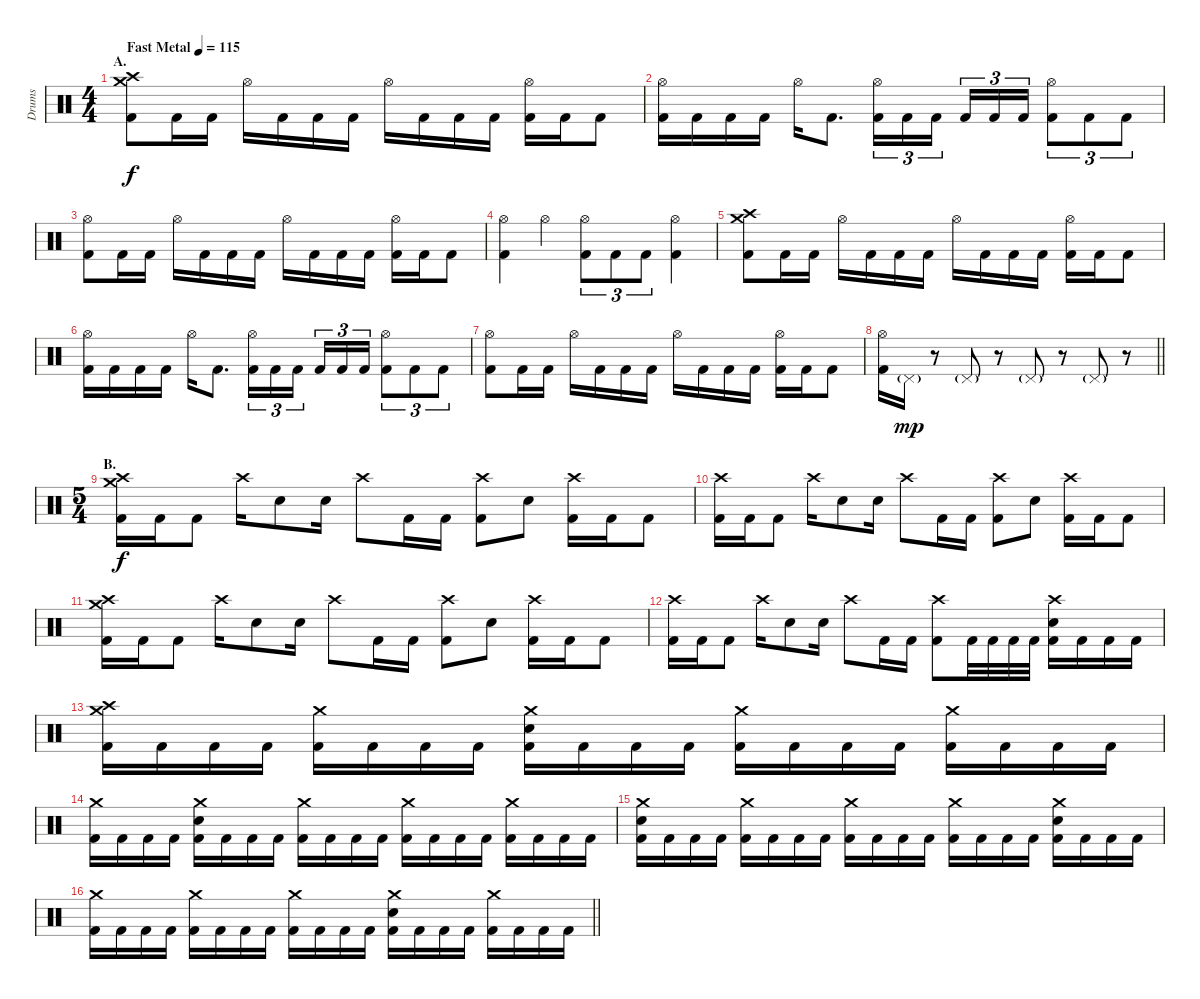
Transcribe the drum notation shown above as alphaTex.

\track ("Drums" "Drums") {instrument percussion}
\staff {score}
\articulation defaults
\ts (4 4)
\section ("" "A.")
\tempo (115 "Fast Metal")
\clef neutral
\ks c
("Crash medium (hit)" "Crash high (hit)" "Kick (hit) 2").8{dy f} "Kick (hit) 2".16 "Kick (hit) 2".16 "Hi-Hat (open)".16 "Kick (hit) 2".16 "Kick (hit) 2".16 "Kick (hit) 2".16 "Hi-Hat (open)".16 "Kick (hit) 2".16 "Kick (hit) 2".16 "Kick (hit) 2".16 ("Hi-Hat (open)" "Kick (hit) 2").16 "Kick (hit) 2".16 "Kick (hit) 2".8 |
("Hi-Hat (open)" "Kick (hit) 2").16 "Kick (hit) 2".16 "Kick (hit) 2".16 "Kick (hit) 2".16 "Hi-Hat (open)".16 "Kick (hit) 2".8{d} ("Hi-Hat (open)" "Kick (hit) 2").16{tu (3 2)} "Kick (hit) 2".16{tu (3 2)} "Kick (hit) 2".16{tu (3 2) beam splitsecondary} "Kick (hit) 2".16{tu (3 2)} "Kick (hit) 2".16{tu (3 2)} "Kick (hit) 2".16{tu (3 2)} ("Hi-Hat (open)" "Kick (hit) 2").8{tu (3 2)} "Kick (hit) 2".8{tu (3 2)} "Kick (hit) 2".8{tu (3 2)} |
("Hi-Hat (open)" "Kick (hit) 2").8 "Kick (hit) 2".16 "Kick (hit) 2".16 "Hi-Hat (open)".16 "Kick (hit) 2".16 "Kick (hit) 2".16 "Kick (hit) 2".16 "Hi-Hat (open)".16 "Kick (hit) 2".16 "Kick (hit) 2".16 "Kick (hit) 2".16 ("Hi-Hat (open)" "Kick (hit) 2").16 "Kick (hit) 2".16 "Kick (hit) 2".8 |
("Hi-Hat (open)" "Kick (hit) 2").4 "Hi-Hat (open)".4 ("Hi-Hat (open)" "Kick (hit) 2").8{tu (3 2)} "Kick (hit) 2".8{tu (3 2)} "Kick (hit) 2".8{tu (3 2)} ("Hi-Hat (open)" "Kick (hit) 2").4 |
("Crash medium (hit)" "Crash high (hit)" "Kick (hit) 2").8 "Kick (hit) 2".16 "Kick (hit) 2".16 "Hi-Hat (open)".16 "Kick (hit) 2".16 "Kick (hit) 2".16 "Kick (hit) 2".16 "Hi-Hat (open)".16 "Kick (hit) 2".16 "Kick (hit) 2".16 "Kick (hit) 2".16 ("Hi-Hat (open)" "Kick (hit) 2").16 "Kick (hit) 2".16 "Kick (hit) 2".8 |
("Hi-Hat (open)" "Kick (hit) 2").16 "Kick (hit) 2".16 "Kick (hit) 2".16 "Kick (hit) 2".16 "Hi-Hat (open)".16 "Kick (hit) 2".8{d} ("Hi-Hat (open)" "Kick (hit) 2").16{tu (3 2)} "Kick (hit) 2".16{tu (3 2)} "Kick (hit) 2".16{tu (3 2) beam splitsecondary} "Kick (hit) 2".16{tu (3 2)} "Kick (hit) 2".16{tu (3 2)} "Kick (hit) 2".16{tu (3 2)} ("Hi-Hat (open)" "Kick (hit) 2").8{tu (3 2)} "Kick (hit) 2".8{tu (3 2)} "Kick (hit) 2".8{tu (3 2)} |
("Hi-Hat (open)" "Kick (hit) 2").8 "Kick (hit) 2".16 "Kick (hit) 2".16 "Hi-Hat (open)".16 "Kick (hit) 2".16 "Kick (hit) 2".16 "Kick (hit) 2".16 "Hi-Hat (open)".16 "Kick (hit) 2".16 "Kick (hit) 2".16 "Kick (hit) 2".16 ("Hi-Hat (open)" "Kick (hit) 2").16 "Kick (hit) 2".16 "Kick (hit) 2".8 |
\barLineRight lightlight
("Hi-Hat (open)" "Kick (hit) 2").16 "Pedal Hi-Hat (hit)"{g}.16{dy mp} r.8 "Pedal Hi-Hat (hit)"{g}.8 r.8 "Pedal Hi-Hat (hit)"{g}.8 r.8 "Pedal Hi-Hat (hit)"{g}.8 r.8 |
\ts (5 4)
\section ("" "B.")
("Crash medium (hit)" "Crash high (hit)" "Kick (hit) 2").16{dy f} "Kick (hit) 2".16 "Kick (hit) 2".8 "Crash high (hit)".16 "Electric Snare (hit)".8 "Electric Snare (hit)".16 "Crash high (hit)".8 "Kick (hit) 2".16 "Kick (hit) 2".16 ("Crash high (hit)" "Kick (hit) 2").8 "Electric Snare (hit)".8 ("Crash high (hit)" "Kick (hit) 2").16 "Kick (hit) 2".16 "Kick (hit) 2".8 |
("Crash high (hit)" "Kick (hit) 2").16 "Kick (hit) 2".16 "Kick (hit) 2".8 "Crash high (hit)".16 "Electric Snare (hit)".8 "Electric Snare (hit)".16 "Crash high (hit)".8 "Kick (hit) 2".16 "Kick (hit) 2".16 ("Crash high (hit)" "Kick (hit) 2").8 "Electric Snare (hit)".8 ("Crash high (hit)" "Kick (hit) 2").16 "Kick (hit) 2".16 "Kick (hit) 2".8 |
("Crash medium (hit)" "Crash high (hit)" "Kick (hit) 2").16 "Kick (hit) 2".16 "Kick (hit) 2".8 "Crash high (hit)".16 "Electric Snare (hit)".8 "Electric Snare (hit)".16 "Crash high (hit)".8 "Kick (hit) 2".16 "Kick (hit) 2".16 ("Crash high (hit)" "Kick (hit) 2").8 "Electric Snare (hit)".8 ("Crash high (hit)" "Kick (hit) 2").16 "Kick (hit) 2".16 "Kick (hit) 2".8 |
("Crash high (hit)" "Kick (hit) 2").16 "Kick (hit) 2".16 "Kick (hit) 2".8 "Crash high (hit)".16 "Electric Snare (hit)".8 "Electric Snare (hit)".16 "Crash high (hit)".8 "Kick (hit) 2".16 "Kick (hit) 2".16 ("Crash high (hit)" "Kick (hit) 2").8 "Kick (hit) 2".32 "Kick (hit) 2".32 "Kick (hit) 2".32 "Kick (hit) 2".32 ("Crash high (hit)" "Electric Snare (hit)" "Kick (hit) 2").16 "Kick (hit) 2".16 "Kick (hit) 2".16 "Kick (hit) 2".16 |
("Crash medium (hit)" "Crash high (hit)" "Kick (hit) 2").16 "Kick (hit) 2".16 "Kick (hit) 2".16 "Kick (hit) 2".16 ("Crash medium (hit)" "Kick (hit) 2").16 "Kick (hit) 2".16 "Kick (hit) 2".16 "Kick (hit) 2".16 ("Crash medium (hit)" "Electric Snare (hit)" "Kick (hit) 2").16 "Kick (hit) 2".16 "Kick (hit) 2".16 "Kick (hit) 2".16 ("Crash medium (hit)" "Kick (hit) 2").16 "Kick (hit) 2".16 "Kick (hit) 2".16 "Kick (hit) 2".16 ("Crash medium (hit)" "Kick (hit) 2").16 "Kick (hit) 2".16 "Kick (hit) 2".16 "Kick (hit) 2".16 |
("Crash medium (hit)" "Kick (hit) 2").16 "Kick (hit) 2".16 "Kick (hit) 2".16 "Kick (hit) 2".16 ("Crash medium (hit)" "Electric Snare (hit)" "Kick (hit) 2").16 "Kick (hit) 2".16 "Kick (hit) 2".16 "Kick (hit) 2".16 ("Crash medium (hit)" "Kick (hit) 2").16 "Kick (hit) 2".16 "Kick (hit) 2".16 "Kick (hit) 2".16 ("Crash medium (hit)" "Kick (hit) 2").16 "Kick (hit) 2".16 "Kick (hit) 2".16 "Kick (hit) 2".16 ("Crash medium (hit)" "Kick (hit) 2").16 "Kick (hit) 2".16 "Kick (hit) 2".16 "Kick (hit) 2".16 |
("Crash medium (hit)" "Electric Snare (hit)" "Kick (hit) 2").16 "Kick (hit) 2".16 "Kick (hit) 2".16 "Kick (hit) 2".16 ("Crash medium (hit)" "Kick (hit) 2").16 "Kick (hit) 2".16 "Kick (hit) 2".16 "Kick (hit) 2".16 ("Crash medium (hit)" "Kick (hit) 2").16 "Kick (hit) 2".16 "Kick (hit) 2".16 "Kick (hit) 2".16 ("Crash medium (hit)" "Kick (hit) 2").16 "Kick (hit) 2".16 "Kick (hit) 2".16 "Kick (hit) 2".16 ("Crash medium (hit)" "Electric Snare (hit)" "Kick (hit) 2").16 "Kick (hit) 2".16 "Kick (hit) 2".16 "Kick (hit) 2".16 |
\barLineRight lightlight
("Crash medium (hit)" "Kick (hit) 2").16 "Kick (hit) 2".16 "Kick (hit) 2".16 "Kick (hit) 2".16 ("Crash medium (hit)" "Kick (hit) 2").16 "Kick (hit) 2".16 "Kick (hit) 2".16 "Kick (hit) 2".16 ("Crash medium (hit)" "Kick (hit) 2").16 "Kick (hit) 2".16 "Kick (hit) 2".16 "Kick (hit) 2".16 ("Crash medium (hit)" "Electric Snare (hit)" "Kick (hit) 2").16 "Kick (hit) 2".16 "Kick (hit) 2".16 "Kick (hit) 2".16 ("Crash medium (hit)" "Kick (hit) 2").16 "Kick (hit) 2".16 "Kick (hit) 2".16 "Kick (hit) 2".16
